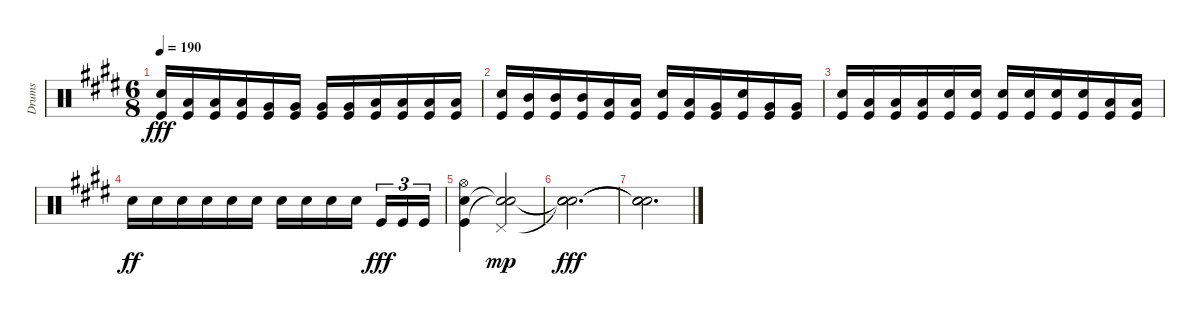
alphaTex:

\track ("Drums" "Drums") {instrument percussion}
\staff {score}
\articulation defaults
\ts (6 8)
\tempo 190
\clef neutral
\ks c#minor
("Snare (hit) 2" "Kick (hit)").16{dy fff} ("Low Tom (hit)" "Kick (hit)").16 ("Low Tom (hit)" "Kick (hit)").16 ("Low Tom (hit)" "Kick (hit)").16 ("Very Low Tom (hit)" "Kick (hit)").16 ("Very Low Tom (hit)" "Kick (hit)").16 ("Very Low Tom (hit)" "Kick (hit)").16 ("Very Low Tom (hit)" "Kick (hit)").16 ("Low Floor Tom (hit)" "Kick (hit)").16 ("Low Floor Tom (hit)" "Kick (hit)").16 ("Low Floor Tom (hit)" "Kick (hit)").16 ("Low Floor Tom (hit)" "Kick (hit)").16 |
("Snare (hit) 2" "Kick (hit)").16 ("Mid Tom (hit)" "Kick (hit)").16 ("Mid Tom (hit)" "Kick (hit)").16 ("Mid Tom (hit)" "Kick (hit)").16 ("Low Tom (hit)" "Kick (hit)").16 ("Low Tom (hit)" "Kick (hit)").16 ("Snare (hit) 2" "Kick (hit)").16 ("Low Tom (hit)" "Kick (hit)").16 ("Very Low Tom (hit)" "Kick (hit)").16 ("Snare (hit) 2" "Kick (hit)").16 ("Very Low Tom (hit)" "Kick (hit)").16 ("Very Low Tom (hit)" "Kick (hit)").16 |
("Snare (hit) 2" "Kick (hit)").16 ("Low Floor Tom (hit)" "Kick (hit)").16 ("Low Floor Tom (hit)" "Kick (hit)").16 ("Low Floor Tom (hit)" "Kick (hit)").16 ("Snare (hit) 2" "Kick (hit)").16 ("Snare (hit) 2" "Kick (hit)").16 ("Snare (hit) 2" "Kick (hit)").16 ("Snare (hit) 2" "Kick (hit)").16 ("Snare (hit) 2" "Kick (hit)").16 ("Snare (hit) 2" "Kick (hit)").16 ("Low Floor Tom (hit)" "Kick (hit)").16 ("Low Floor Tom (hit)" "Kick (hit)").16 |
"Snare (hit) 2".16{dy ff} "Snare (hit) 2".16 "Snare (hit) 2".16 "Snare (hit) 2".16 "Snare (hit) 2".16 "Snare (hit) 2".16 "Snare (hit) 2".16 "Snare (hit) 2".16 "Snare (hit) 2".16 "Snare (hit) 2".16{beam splitsecondary} "Kick (hit)".16{tu (3 2) dy fff} "Kick (hit)".16{tu (3 2)} "Kick (hit)".16{tu (3 2)} |
("Hi-Hat (open)" "Snare (hit) 2" "Kick (hit)").4 ("Pedal Hi-Hat (hit)" "Snare (hit)"{t} "Snare (hit)"{t}).2{dy mp} |
("Snare (hit)"{t} "Snare (hit)"{t} "Snare (hit)"{t}).2{d dy fff} |
("Snare (hit)"{t} "Snare (hit)"{t} "Snare (hit)"{t}).2{d}
